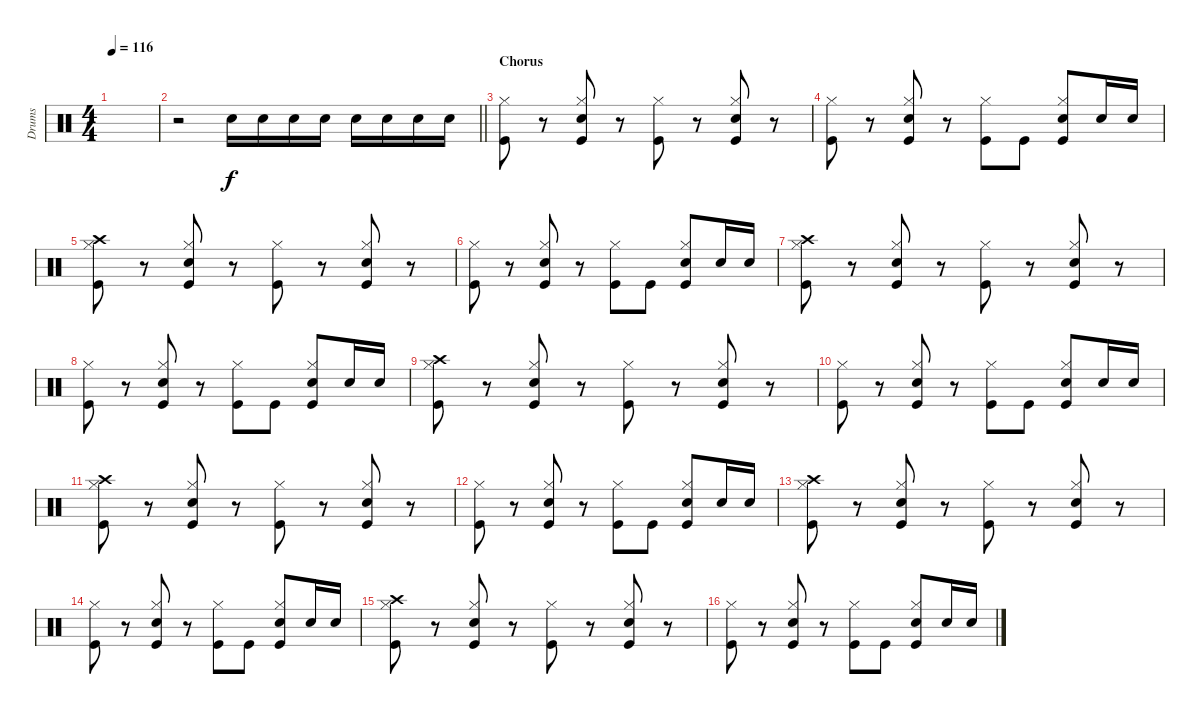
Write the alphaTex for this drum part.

\track ("Drums" "Drums") {instrument percussion}
\staff {score}
\articulation defaults
\ts (4 4)
\tempo 116
\clef neutral
\ks c
|
\barLineRight lightlight
r.2 "Snare (hit) 2".16 "Snare (hit) 2".16 "Snare (hit) 2".16 "Snare (hit) 2".16 "Snare (hit) 2".16 "Snare (hit) 2".16 "Snare (hit) 2".16 "Snare (hit) 2".16 |
\section ("" "Chorus")
("Hi-Hat (closed)" "Kick (hit)").8 r.8 ("Hi-Hat (closed)" "Snare (hit) 2" "Kick (hit)").8 r.8 ("Hi-Hat (closed)" "Kick (hit)").8 r.8 ("Hi-Hat (closed)" "Snare (hit) 2" "Kick (hit)").8 r.8 |
("Hi-Hat (closed)" "Kick (hit)").8 r.8 ("Hi-Hat (closed)" "Snare (hit) 2" "Kick (hit)").8 r.8 ("Hi-Hat (closed)" "Kick (hit)").8 "Kick (hit)".8 ("Hi-Hat (closed)" "Snare (hit) 2" "Kick (hit)").8 "Snare (hit) 2".16 "Snare (hit) 2".16 |
("Crash high (hit)" "Hi-Hat (closed)" "Kick (hit)").8 r.8 ("Hi-Hat (closed)" "Snare (hit) 2" "Kick (hit)").8 r.8 ("Hi-Hat (closed)" "Kick (hit)").8 r.8 ("Hi-Hat (closed)" "Snare (hit) 2" "Kick (hit)").8 r.8 |
("Hi-Hat (closed)" "Kick (hit)").8 r.8 ("Hi-Hat (closed)" "Snare (hit) 2" "Kick (hit)").8 r.8 ("Hi-Hat (closed)" "Kick (hit)").8 "Kick (hit)".8 ("Hi-Hat (closed)" "Snare (hit) 2" "Kick (hit)").8 "Snare (hit) 2".16 "Snare (hit) 2".16 |
("Crash high (hit)" "Hi-Hat (closed)" "Kick (hit)").8 r.8 ("Hi-Hat (closed)" "Snare (hit) 2" "Kick (hit)").8 r.8 ("Hi-Hat (closed)" "Kick (hit)").8 r.8 ("Hi-Hat (closed)" "Snare (hit) 2" "Kick (hit)").8 r.8 |
("Hi-Hat (closed)" "Kick (hit)").8 r.8 ("Hi-Hat (closed)" "Snare (hit) 2" "Kick (hit)").8 r.8 ("Hi-Hat (closed)" "Kick (hit)").8 "Kick (hit)".8 ("Hi-Hat (closed)" "Snare (hit) 2" "Kick (hit)").8 "Snare (hit) 2".16 "Snare (hit) 2".16 |
("Crash high (hit)" "Hi-Hat (closed)" "Kick (hit)").8 r.8 ("Hi-Hat (closed)" "Snare (hit) 2" "Kick (hit)").8 r.8 ("Hi-Hat (closed)" "Kick (hit)").8 r.8 ("Hi-Hat (closed)" "Snare (hit) 2" "Kick (hit)").8 r.8 |
("Hi-Hat (closed)" "Kick (hit)").8 r.8 ("Hi-Hat (closed)" "Snare (hit) 2" "Kick (hit)").8 r.8 ("Hi-Hat (closed)" "Kick (hit)").8 "Kick (hit)".8 ("Hi-Hat (closed)" "Snare (hit) 2" "Kick (hit)").8 "Snare (hit) 2".16 "Snare (hit) 2".16 |
("Crash high (hit)" "Hi-Hat (closed)" "Kick (hit)").8 r.8 ("Hi-Hat (closed)" "Snare (hit) 2" "Kick (hit)").8 r.8 ("Hi-Hat (closed)" "Kick (hit)").8 r.8 ("Hi-Hat (closed)" "Snare (hit) 2" "Kick (hit)").8 r.8 |
("Hi-Hat (closed)" "Kick (hit)").8 r.8 ("Hi-Hat (closed)" "Snare (hit) 2" "Kick (hit)").8 r.8 ("Hi-Hat (closed)" "Kick (hit)").8 "Kick (hit)".8 ("Hi-Hat (closed)" "Snare (hit) 2" "Kick (hit)").8 "Snare (hit) 2".16 "Snare (hit) 2".16 |
("Crash high (hit)" "Hi-Hat (closed)" "Kick (hit)").8 r.8 ("Hi-Hat (closed)" "Snare (hit) 2" "Kick (hit)").8 r.8 ("Hi-Hat (closed)" "Kick (hit)").8 r.8 ("Hi-Hat (closed)" "Snare (hit) 2" "Kick (hit)").8 r.8 |
("Hi-Hat (closed)" "Kick (hit)").8 r.8 ("Hi-Hat (closed)" "Snare (hit) 2" "Kick (hit)").8 r.8 ("Hi-Hat (closed)" "Kick (hit)").8 "Kick (hit)".8 ("Hi-Hat (closed)" "Snare (hit) 2" "Kick (hit)").8 "Snare (hit) 2".16 "Snare (hit) 2".16 |
("Crash high (hit)" "Hi-Hat (closed)" "Kick (hit)").8 r.8 ("Hi-Hat (closed)" "Snare (hit) 2" "Kick (hit)").8 r.8 ("Hi-Hat (closed)" "Kick (hit)").8 r.8 ("Hi-Hat (closed)" "Snare (hit) 2" "Kick (hit)").8 r.8 |
("Hi-Hat (closed)" "Kick (hit)").8 r.8 ("Hi-Hat (closed)" "Snare (hit) 2" "Kick (hit)").8 r.8 ("Hi-Hat (closed)" "Kick (hit)").8 "Kick (hit)".8 ("Hi-Hat (closed)" "Snare (hit) 2" "Kick (hit)").8 "Snare (hit) 2".16 "Snare (hit) 2".16
